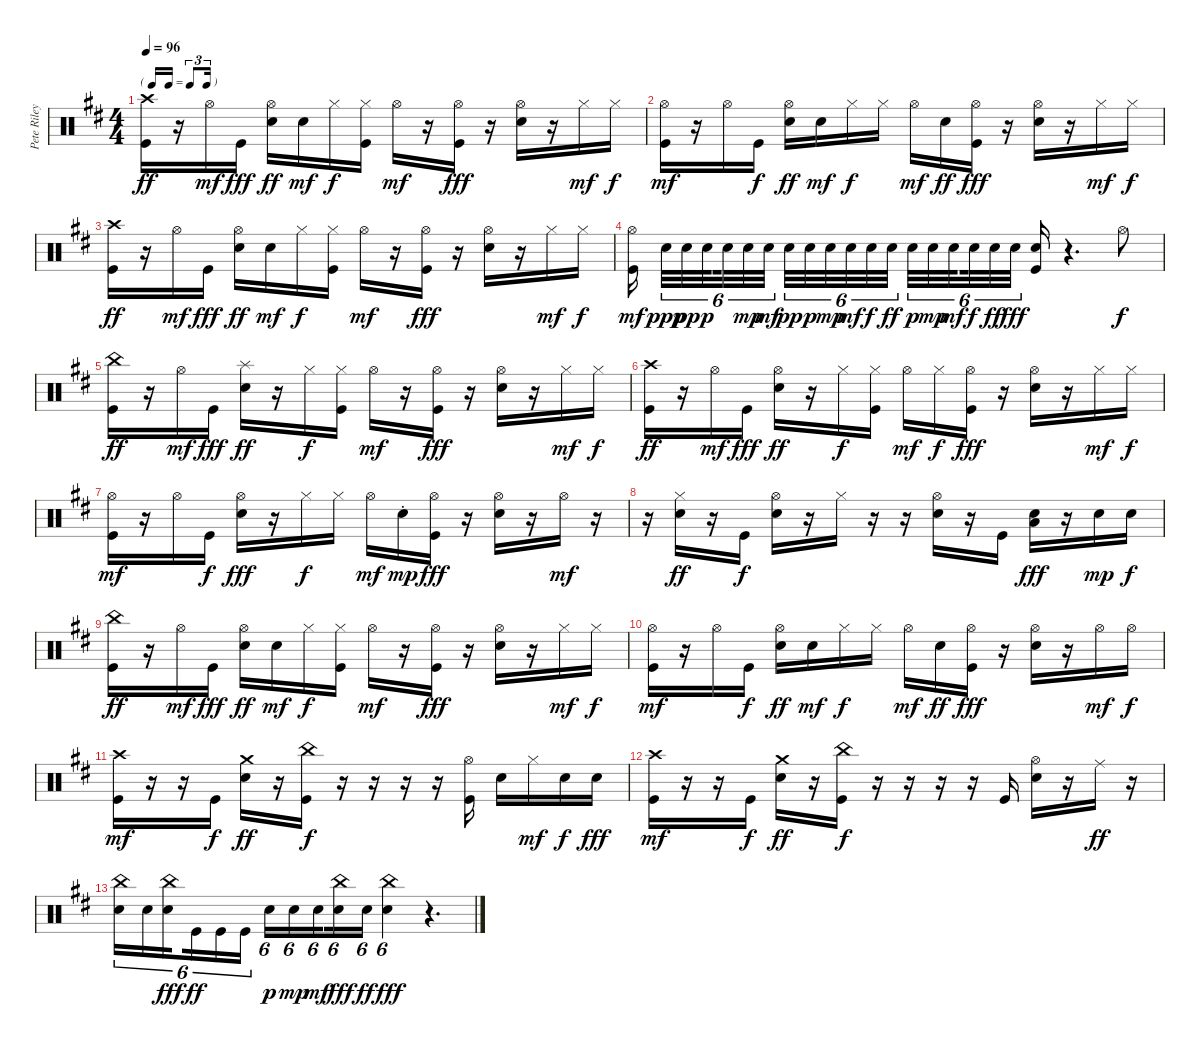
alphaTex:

\track ("Pete Riley" "Pete Riley") {instrument percussion}
\staff {score}
\articulation defaults
\ts (4 4)
\tf triplet16th
\tempo 96
\clef neutral
\ks d
("Crash high (hit)" "Kick (hit)").16{dy ff} r.16 "Hi-Hat (open)".16{dy mf} "Kick (hit)".16{dy fff} ("Hi-Hat (open)" "Electric Snare (hit)").16{dy ff} "Electric Snare (hit)".16{dy mf} "Hi-Hat (closed)".16{dy f} ("Hi-Hat (closed)" "Kick (hit)").16 "Hi-Hat (open)".16{dy mf} r.16 ("Hi-Hat (open)" "Kick (hit)").16{dy fff} r.16 ("Hi-Hat (open)" "Electric Snare (hit)").16 r.16 "Hi-Hat (closed)".16{dy mf} "Hi-Hat (closed)".16{dy f} |
("Hi-Hat (open)" "Kick (hit)").16{dy mf} r.16 "Hi-Hat (open)".16 "Kick (hit)".16{dy f} ("Hi-Hat (open)" "Electric Snare (hit)").16{dy ff} "Electric Snare (hit)".16{dy mf} "Hi-Hat (closed)".16{dy f} "Hi-Hat (closed)".16 "Hi-Hat (open)".16{dy mf} "Electric Snare (hit)".16{dy ff} ("Hi-Hat (open)" "Kick (hit)").16{dy fff} r.16 ("Hi-Hat (open)" "Electric Snare (hit)").16 r.16 "Hi-Hat (closed)".16{dy mf} "Hi-Hat (closed)".16{dy f} |
("Crash high (hit)" "Kick (hit)").16{dy ff} r.16 "Hi-Hat (open)".16{dy mf} "Kick (hit)".16{dy fff} ("Hi-Hat (open)" "Electric Snare (hit)").16{dy ff} "Electric Snare (hit)".16{dy mf} "Hi-Hat (closed)".16{dy f} ("Hi-Hat (closed)" "Kick (hit)").16 "Hi-Hat (open)".16{dy mf} r.16 ("Hi-Hat (open)" "Kick (hit)").16{dy fff} r.16 ("Hi-Hat (open)" "Electric Snare (hit)").16 r.16 "Hi-Hat (closed)".16{dy mf} "Hi-Hat (closed)".16{dy f} |
("Hi-Hat (open)" "Kick (hit)").16{dy mf beam splitsecondary} "Electric Snare (hit)".32{tu (6 4) dy ppp} "Electric Snare (hit)".32{tu (6 4) dy pp} "Electric Snare (hit)".32{tu (6 4) dy p beam splitsecondary} "Electric Snare (hit)".32{tu (6 4)} "Electric Snare (hit)".32{tu (6 4) dy mp} "Electric Snare (hit)".32{tu (6 4) dy mf beam splitsecondary} "Electric Snare (hit)".32{tu (6 4) dy pp} "Electric Snare (hit)".32{tu (6 4) dy p} "Electric Snare (hit)".32{tu (6 4) dy mp} "Electric Snare (hit)".32{tu (6 4) dy mf} "Electric Snare (hit)".32{tu (6 4) dy f} "Electric Snare (hit)".32{tu (6 4) dy ff beam splitsecondary} "Electric Snare (hit)".32{tu (6 4) dy p} "Electric Snare (hit)".32{tu (6 4) dy mp} "Electric Snare (hit)".32{tu (6 4) dy mf beam splitsecondary} "Electric Snare (hit)".32{tu (6 4) dy f} "Electric Snare (hit)".32{tu (6 4) dy ff} "Electric Snare (hit)".32{tu (6 4) dy fff beam splitsecondary} ("Electric Snare (hit)" "Kick (hit)").16 r.4{d} "Hi-Hat (open)".8{dy f} |
("China (hit)" "Kick (hit)").16{dy ff} r.16 "Hi-Hat (open)".16{dy mf} "Kick (hit)".16{dy fff} ("Splash (hit)" "Electric Snare (hit)").16{dy ff} r.16 "Hi-Hat (closed)".16{dy f} ("Hi-Hat (closed)" "Kick (hit)").16 "Hi-Hat (open)".16{dy mf} r.16 ("Hi-Hat (open)" "Kick (hit)").16{dy fff} r.16 ("Hi-Hat (open)" "Electric Snare (hit)").16 r.16 "Hi-Hat (closed)".16{dy mf} "Hi-Hat (closed)".16{dy f} |
("Crash high (hit)" "Kick (hit)").16{dy ff} r.16 "Hi-Hat (open)".16{dy mf} "Kick (hit)".16{dy fff} ("Hi-Hat (open)" "Electric Snare (hit)").16{dy ff} r.16 "Hi-Hat (closed)".16{dy f} ("Hi-Hat (closed)" "Kick (hit)").16 "Hi-Hat (open)".16{dy mf} "Hi-Hat (closed)".16{dy f} ("Hi-Hat (open)" "Kick (hit)").16{dy fff} r.16 ("Hi-Hat (open)" "Electric Snare (hit)").16 r.16 "Hi-Hat (closed)".16{dy mf} "Hi-Hat (closed)".16{dy f} |
("Hi-Hat (open)" "Kick (hit)").16{dy mf} r.16 "Hi-Hat (open)".16 "Kick (hit)".16{dy f} ("Hi-Hat (open)" "Electric Snare (hit)").16{dy fff} r.16 "Hi-Hat (closed)".16{dy f} "Hi-Hat (closed)".16 "Hi-Hat (open)".16{dy mf} "Electric Snare (hit)"{st}.16{dy mp} ("Hi-Hat (open)" "Kick (hit)").16{dy fff} r.16 ("Hi-Hat (open)" "Electric Snare (hit)").16 r.16 "Hi-Hat (open)".16{dy mf} r.16 |
r.16 ("Hi-Hat (closed)" "Electric Snare (hit)").16{dy ff} r.16 "Kick (hit)".16{dy f} ("Hi-Hat (open)" "Electric Snare (hit)").16 r.16 "Hi-Hat (closed)".16 r.16 r.16 ("Hi-Hat (open)" "Electric Snare (hit)").16 r.16 "Kick (hit)".16 ("Low Tom (hit)" "Electric Snare (hit)").16{dy fff} r.16 "Electric Snare (hit)".16{dy mp} "Electric Snare (hit)".16{dy f} |
("China (hit)" "Kick (hit)").16{dy ff} r.16 "Hi-Hat (open)".16{dy mf} "Kick (hit)".16{dy fff} ("Hi-Hat (open)" "Electric Snare (hit)").16{dy ff} "Electric Snare (hit)".16{dy mf} "Hi-Hat (closed)".16{dy f} ("Hi-Hat (closed)" "Kick (hit)").16 "Hi-Hat (open)".16{dy mf} r.16 ("Hi-Hat (open)" "Kick (hit)").16{dy fff} r.16 ("Hi-Hat (open)" "Electric Snare (hit)").16 r.16 "Hi-Hat (closed)".16{dy mf} "Hi-Hat (closed)".16{dy f} |
("Hi-Hat (open)" "Kick (hit)").16{dy mf} r.16 "Hi-Hat (open)".16 "Kick (hit)".16{dy f} ("Hi-Hat (open)" "Electric Snare (hit)").16{dy ff} "Electric Snare (hit)".16{dy mf} "Hi-Hat (closed)".16{dy f} "Hi-Hat (closed)".16 "Hi-Hat (open)".16{dy mf} "Electric Snare (hit)".16{dy ff} ("Hi-Hat (open)" "Kick (hit)").16{dy fff} r.16 ("Hi-Hat (open)" "Electric Snare (hit)").16 r.16 "Hi-Hat (open)".16{dy mf} "Hi-Hat (open)".16{dy f} |
("Crash high (hit)" "Kick (hit)").16{dy mf} r.16 r.16 "Kick (hit)".16{dy f} ("Crash medium (hit)" "Electric Snare (hit)").16{dy ff} r.16 ("China (hit)" "Kick (hit)").16{dy f} r.16 r.16 r.16 r.16 ("Hi-Hat (open)" "Kick (hit)").16 "Electric Snare (hit)".16 "Hi-Hat (closed)".16{dy mf} "Electric Snare (hit)".16{dy f} "Electric Snare (hit)".16{dy fff} |
("Crash high (hit)" "Kick (hit)").16{dy mf} r.16 r.16 "Kick (hit)".16{dy f} ("Crash medium (hit)" "Electric Snare (hit)").16{dy ff} r.16 ("China (hit)" "Kick (hit)").16{dy f} r.16 r.16 r.16 r.16 "Kick (hit)".16 ("Hi-Hat (open)" "Electric Snare (hit)").16 r.16 "Ride (middle)".16{dy ff} r.16 |
("China (hit)" "Electric Snare (hit)").16{tu (6 4)} "Electric Snare (hit)".16{tu (6 4)} ("China (hit)" "Electric Snare (hit)").16{tu (6 4) dy fff beam splitsecondary} "Kick (hit)".16{tu (6 4) dy ff} "Kick (hit)".16{tu (6 4)} "Kick (hit)".16{tu (6 4)} "Electric Snare (hit)".16{tu (6 4) dy p} "Electric Snare (hit)".16{tu (6 4) dy mp} "Electric Snare (hit)".16{tu (6 4) dy mf beam splitsecondary} ("China (hit)" "Electric Snare (hit)").16{tu (6 4) dy fff} "Electric Snare (hit)".16{tu (6 4) dy ff} ("China (hit)" "Electric Snare (hit)").4{tu (6 4) dy fff} r.4{d}
